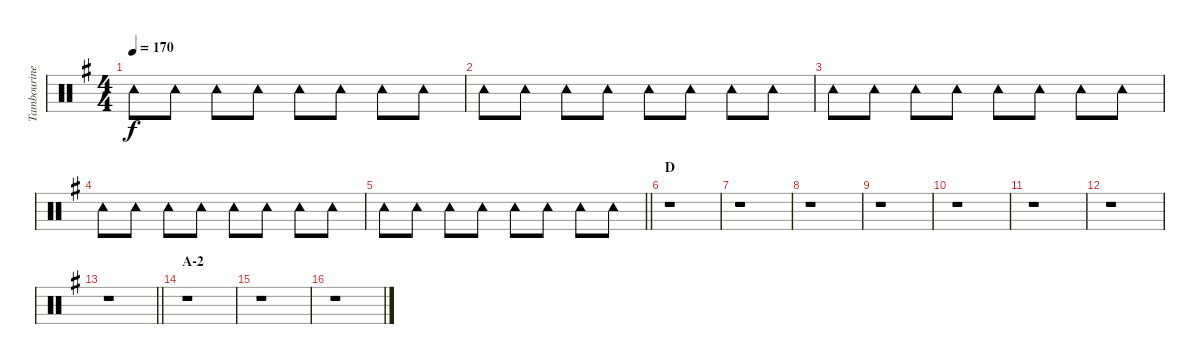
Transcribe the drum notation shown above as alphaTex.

\track ("Tambourine" "Tambourine") {instrument percussion}
\staff {score}
\articulation defaults
\ts (4 4)
\tempo 170
\clef neutral
\ks g "Tambourine (hit)".8{dy f} "Tambourine (hit)".8 "Tambourine (hit)".8 "Tambourine (hit)".8 "Tambourine (hit)".8 "Tambourine (hit)".8 "Tambourine (hit)".8 "Tambourine (hit)".8
|
"Tambourine (hit)".8 "Tambourine (hit)".8 "Tambourine (hit)".8 "Tambourine (hit)".8 "Tambourine (hit)".8 "Tambourine (hit)".8 "Tambourine (hit)".8 "Tambourine (hit)".8 |
"Tambourine (hit)".8 "Tambourine (hit)".8 "Tambourine (hit)".8 "Tambourine (hit)".8 "Tambourine (hit)".8 "Tambourine (hit)".8 "Tambourine (hit)".8 "Tambourine (hit)".8 |
"Tambourine (hit)".8 "Tambourine (hit)".8 "Tambourine (hit)".8 "Tambourine (hit)".8 "Tambourine (hit)".8 "Tambourine (hit)".8 "Tambourine (hit)".8 "Tambourine (hit)".8 |
\barLineRight lightlight "Tambourine (hit)".8 "Tambourine (hit)".8 "Tambourine (hit)".8 "Tambourine (hit)".8 "Tambourine (hit)".8 "Tambourine (hit)".8 "Tambourine (hit)".8 "Tambourine (hit)".8
|
\section ("" "D")
r.1 |
r.1 |
r.1 |
r.1 |
r.1 |
r.1 |
r.1 |
\barLineRight lightlight
r.1 |
\section ("" "A-2")
r.1 |
r.1 |
r.1
